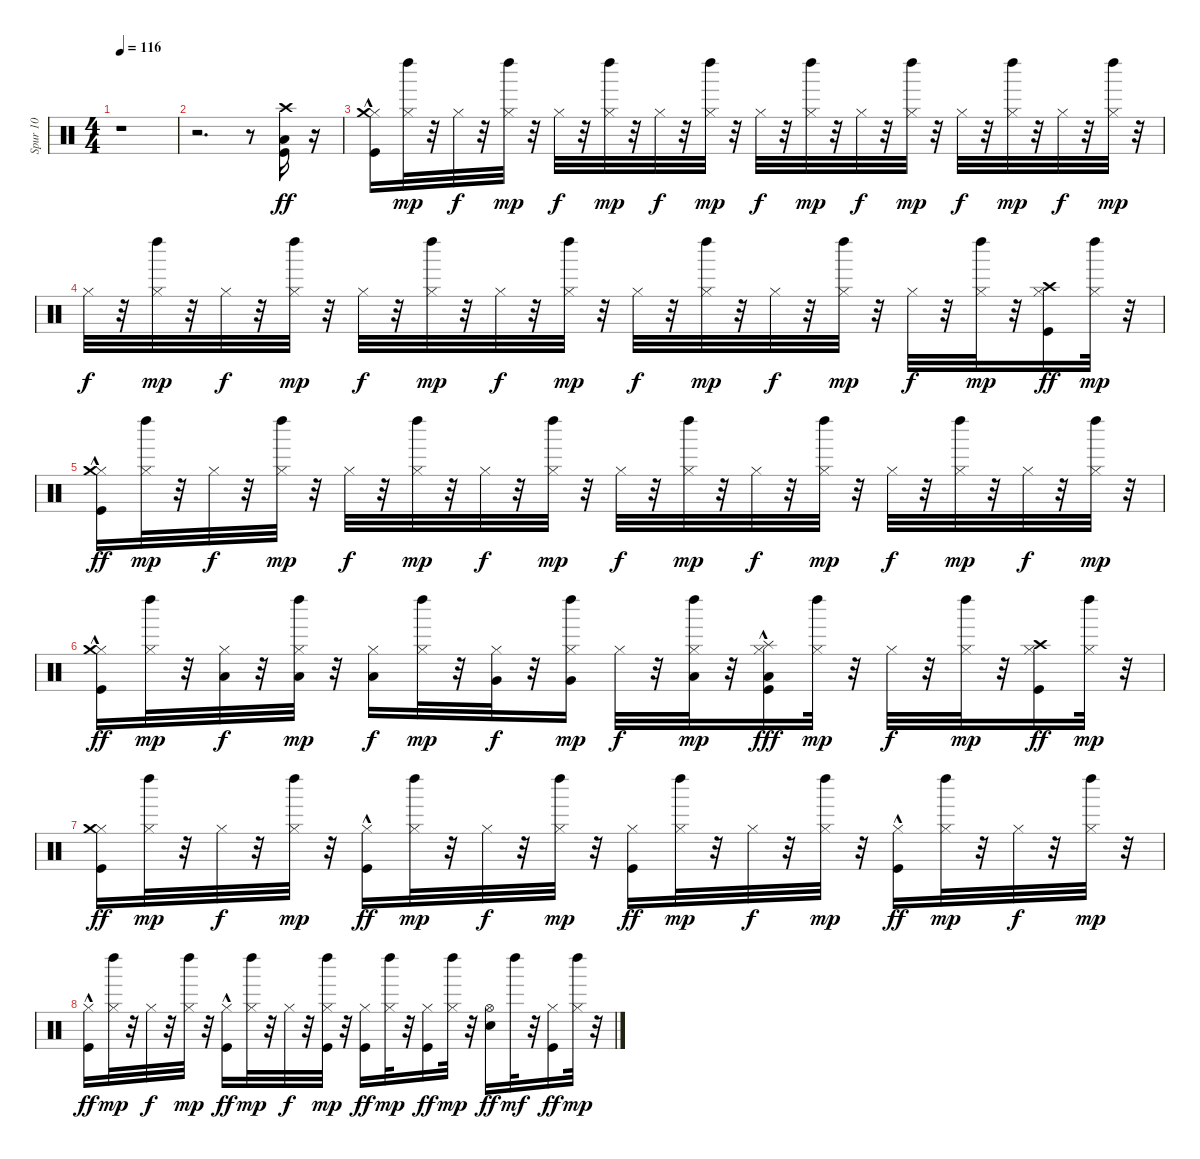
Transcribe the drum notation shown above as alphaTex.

\track ("Spur 10" "Spur 10") {instrument percussion}
\staff {score}
\articulation defaults
\ts (4 4)
\tempo 116
\clef neutral
\ks c
r.1{dy ff} |
r.2{d} r.8 ("Low Tom (hit)" "Kick (hit)" "Crash high (hit)").16 r.16 |
("Kick (hit)"{hac} "Hi-Hat (closed)" "Crash medium (hit)").16 ("Left Maraca (hit)" "Hi-Hat (closed)").32{dy mp} r.32 "Hi-Hat (closed)".32{dy f} r.32 ("Left Maraca (hit)" "Hi-Hat (closed)").32{dy mp} r.32 "Hi-Hat (closed)".32{dy f} r.32 ("Left Maraca (hit)" "Hi-Hat (closed)").32{dy mp} r.32 "Hi-Hat (closed)".32{dy f} r.32 ("Left Maraca (hit)" "Hi-Hat (closed)").32{dy mp} r.32 "Hi-Hat (closed)".32{dy f} r.32 ("Left Maraca (hit)" "Hi-Hat (closed)").32{dy mp} r.32 "Hi-Hat (closed)".32{dy f} r.32 ("Left Maraca (hit)" "Hi-Hat (closed)").32{dy mp} r.32 "Hi-Hat (closed)".32{dy f} r.32 ("Left Maraca (hit)" "Hi-Hat (closed)").32{dy mp} r.32 "Hi-Hat (closed)".32{dy f} r.32 ("Left Maraca (hit)" "Hi-Hat (closed)").32{dy mp} r.32 |
"Hi-Hat (closed)".32{dy f} r.32 ("Left Maraca (hit)" "Hi-Hat (closed)").32{dy mp} r.32 "Hi-Hat (closed)".32{dy f} r.32 ("Left Maraca (hit)" "Hi-Hat (closed)").32{dy mp} r.32 "Hi-Hat (closed)".32{dy f} r.32 ("Left Maraca (hit)" "Hi-Hat (closed)").32{dy mp} r.32 "Hi-Hat (closed)".32{dy f} r.32 ("Left Maraca (hit)" "Hi-Hat (closed)").32{dy mp} r.32 "Hi-Hat (closed)".32{dy f} r.32 ("Left Maraca (hit)" "Hi-Hat (closed)").32{dy mp} r.32 "Hi-Hat (closed)".32{dy f} r.32 ("Left Maraca (hit)" "Hi-Hat (closed)").32{dy mp} r.32 "Hi-Hat (closed)".32{dy f} r.32 ("Left Maraca (hit)" "Hi-Hat (closed)").32{dy mp} r.32 ("Kick (hit)" "Hi-Hat (closed)" "Crash high (hit)").16{dy ff} ("Left Maraca (hit)" "Hi-Hat (closed)").32{dy mp} r.32 |
("Kick (hit)"{hac} "Hi-Hat (closed)" "Crash medium (hit)").16{dy ff} ("Left Maraca (hit)" "Hi-Hat (closed)").32{dy mp} r.32 "Hi-Hat (closed)".32{dy f} r.32 ("Left Maraca (hit)" "Hi-Hat (closed)").32{dy mp} r.32 "Hi-Hat (closed)".32{dy f} r.32 ("Left Maraca (hit)" "Hi-Hat (closed)").32{dy mp} r.32 "Hi-Hat (closed)".32{dy f} r.32 ("Left Maraca (hit)" "Hi-Hat (closed)").32{dy mp} r.32 "Hi-Hat (closed)".32{dy f} r.32 ("Left Maraca (hit)" "Hi-Hat (closed)").32{dy mp} r.32 "Hi-Hat (closed)".32{dy f} r.32 ("Left Maraca (hit)" "Hi-Hat (closed)").32{dy mp} r.32 "Hi-Hat (closed)".32{dy f} r.32 ("Left Maraca (hit)" "Hi-Hat (closed)").32{dy mp} r.32 "Hi-Hat (closed)".32{dy f} r.32 ("Left Maraca (hit)" "Hi-Hat (closed)").32{dy mp} r.32 |
("Kick (hit)"{hac} "Hi-Hat (closed)" "Crash medium (hit)").16{dy ff} ("Left Maraca (hit)" "Hi-Hat (closed)").32{dy mp} r.32 ("Low Tom (hit)" "Hi-Hat (closed)").32{dy f} r.32 ("Low Tom (hit)" "Left Maraca (hit)" "Hi-Hat (closed)").32{dy mp} r.32 ("Low Tom (hit)" "Hi-Hat (closed)").16{dy f} ("Left Maraca (hit)" "Hi-Hat (closed)").32{dy mp} r.32 ("Very Low Tom (hit)" "Hi-Hat (closed)").32{dy f} r.32 ("Very Low Tom (hit)" "Left Maraca (hit)" "Hi-Hat (closed)").16{dy mp} "Hi-Hat (closed)".32{dy f} r.32 ("Low Floor Tom (hit)" "Left Maraca (hit)" "Hi-Hat (closed)").32{dy mp} r.32 ("Kick (hit)"{hac} "Low Floor Tom (hit)" "Hi-Hat (closed)" "Splash (hit)").16{dy fff} ("Left Maraca (hit)" "Hi-Hat (closed)").32{dy mp} r.32 "Hi-Hat (closed)".32{dy f} r.32 ("Left Maraca (hit)" "Hi-Hat (closed)").32{dy mp} r.32 ("Kick (hit)" "Hi-Hat (closed)" "Crash high (hit)").16{dy ff} ("Left Maraca (hit)" "Hi-Hat (closed)").32{dy mp} r.32 |
("Kick (hit)" "Hi-Hat (closed)" "Crash medium (hit)").16{dy ff} ("Left Maraca (hit)" "Hi-Hat (closed)").32{dy mp} r.32 "Hi-Hat (closed)".32{dy f} r.32 ("Left Maraca (hit)" "Hi-Hat (closed)").32{dy mp} r.32 ("Kick (hit)"{hac} "Hi-Hat (closed)").16{dy ff} ("Left Maraca (hit)" "Hi-Hat (closed)").32{dy mp} r.32 "Hi-Hat (closed)".32{dy f} r.32 ("Left Maraca (hit)" "Hi-Hat (closed)").32{dy mp} r.32 ("Kick (hit)" "Hi-Hat (closed)").16{dy ff} ("Left Maraca (hit)" "Hi-Hat (closed)").32{dy mp} r.32 "Hi-Hat (closed)".32{dy f} r.32 ("Left Maraca (hit)" "Hi-Hat (closed)").32{dy mp} r.32 ("Kick (hit)"{hac} "Hi-Hat (closed)").16{dy ff} ("Left Maraca (hit)" "Hi-Hat (closed)").32{dy mp} r.32 "Hi-Hat (closed)".32{dy f} r.32 ("Left Maraca (hit)" "Hi-Hat (closed)").32{dy mp} r.32 |
("Kick (hit)"{hac} "Hi-Hat (closed)").16{dy ff} ("Left Maraca (hit)" "Hi-Hat (closed)").32{dy mp} r.32 "Hi-Hat (closed)".32{dy f} r.32 ("Left Maraca (hit)" "Hi-Hat (closed)").32{dy mp} r.32 ("Kick (hit)"{hac} "Hi-Hat (closed)").16{dy ff} ("Left Maraca (hit)" "Hi-Hat (closed)").32{dy mp} r.32 "Hi-Hat (closed)".32{dy f} r.32 ("Kick (hit)" "Left Maraca (hit)" "Hi-Hat (closed)").32{dy mp} r.32 ("Kick (hit)" "Hi-Hat (closed)").16{dy ff} ("Left Maraca (hit)" "Hi-Hat (closed)").32{dy mp} r.32 ("Kick (hit)" "Hi-Hat (closed)").16{dy ff} ("Left Maraca (hit)" "Hi-Hat (closed)").32{dy mp} r.32 ("Snare (hit) 2" "Hi-Hat (open)").16{dy ff} "Left Maraca (hit)".32{dy mf} r.32 ("Kick (hit)" "Hi-Hat (closed)").16{dy ff} ("Left Maraca (hit)" "Hi-Hat (closed)").32{dy mp} r.32
